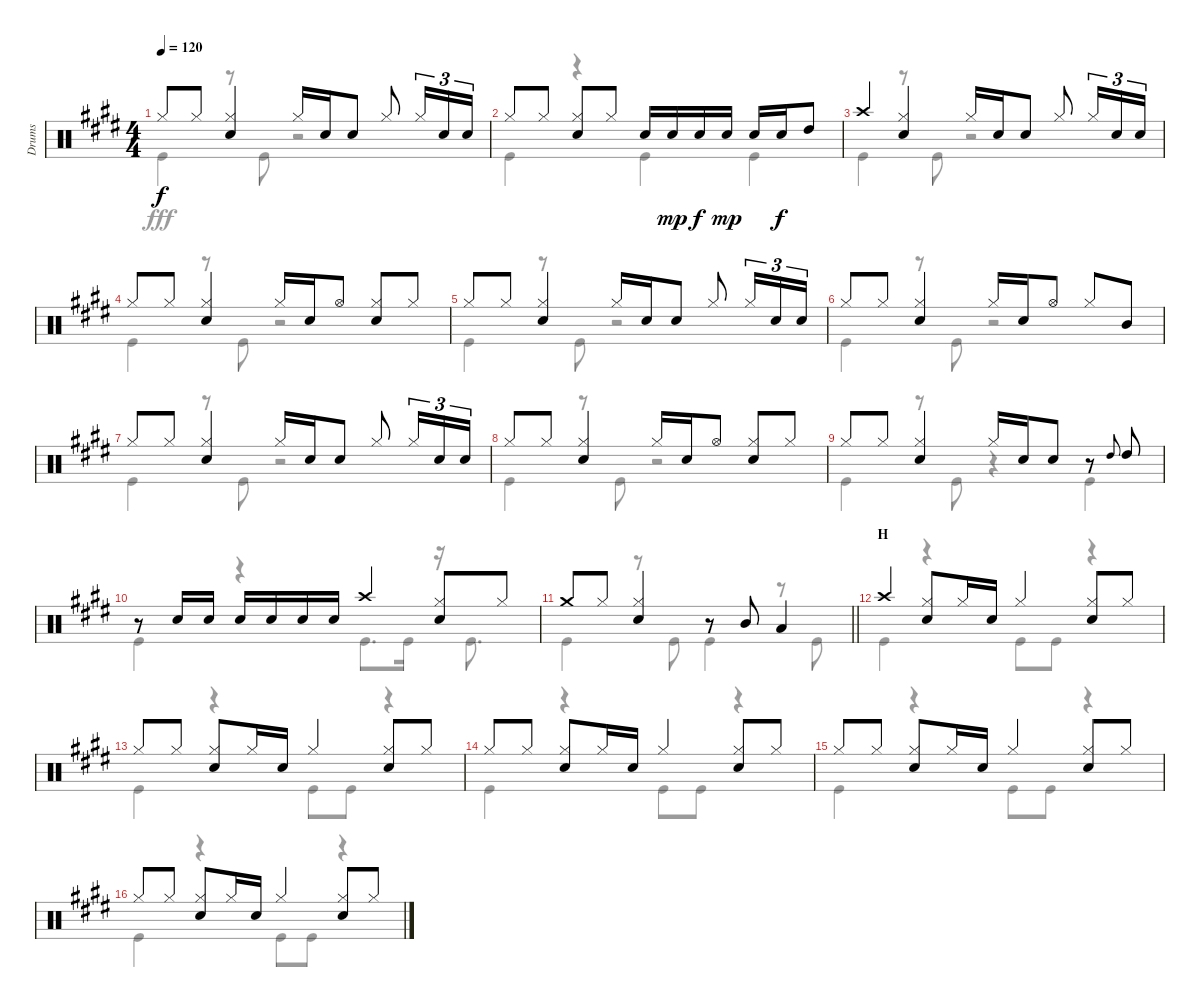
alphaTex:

\track ("Drums" "Drums") {instrument percussion}
\staff {score}
\articulation defaults
\voice
\ts (4 4)
\tempo 120
\clef neutral
\ks e "Hi-Hat (closed)".8{dy f} "Hi-Hat (closed)".8
("Hi-Hat (closed)" "Snare (hit) 2").4 "Hi-Hat (closed)".16 "Snare (hit) 2".16 "Snare (hit) 2".8 "Hi-Hat (closed)".8 "Hi-Hat (closed)".16{tu (3 2)} "Snare (hit) 2".16{tu (3 2)} "Snare (hit) 2".16{tu (3 2)} |
"Hi-Hat (closed)".8 "Hi-Hat (closed)".8 ("Hi-Hat (closed)" "Snare (hit) 2").8 "Hi-Hat (closed)".8 "Snare (hit) 2".16 "Snare (hit) 2".16{dy mp} "Snare (hit) 2".16{dy f} "Snare (hit) 2".16{dy mp} "Snare (hit) 2".16 "Snare (hit) 2".16{dy f} "High Tom (hit)".8 |
"Crash high (hit)".4 ("Hi-Hat (closed)" "Snare (hit) 2").4 "Hi-Hat (closed)".16 "Snare (hit) 2".16 "Snare (hit) 2".8 "Hi-Hat (closed)".8 "Hi-Hat (closed)".16{tu (3 2)} "Snare (hit) 2".16{tu (3 2)} "Snare (hit) 2".16{tu (3 2)} |
"Hi-Hat (closed)".8 "Hi-Hat (closed)".8 ("Hi-Hat (closed)" "Snare (hit) 2").4 "Hi-Hat (closed)".16 "Snare (hit) 2".16 "Hi-Hat (open)".8 ("Hi-Hat (closed)" "Snare (hit) 2").8 "Hi-Hat (closed)".8 |
"Hi-Hat (closed)".8 "Hi-Hat (closed)".8 ("Hi-Hat (closed)" "Snare (hit) 2").4 "Hi-Hat (closed)".16 "Snare (hit) 2".16 "Snare (hit) 2".8 "Hi-Hat (closed)".8 "Hi-Hat (closed)".16{tu (3 2)} "Snare (hit) 2".16{tu (3 2)} "Snare (hit) 2".16{tu (3 2)} |
"Hi-Hat (closed)".8 "Hi-Hat (closed)".8 ("Hi-Hat (closed)" "Snare (hit) 2").4 "Hi-Hat (closed)".16 "Snare (hit) 2".16 "Hi-Hat (open)".8 "Hi-Hat (closed)".8 "Mid Tom (hit)".8 |
"Hi-Hat (closed)".8 "Hi-Hat (closed)".8 ("Hi-Hat (closed)" "Snare (hit) 2").4 "Hi-Hat (closed)".16 "Snare (hit) 2".16 "Snare (hit) 2".8 "Hi-Hat (closed)".8 "Hi-Hat (closed)".16{tu (3 2)} "Snare (hit) 2".16{tu (3 2)} "Snare (hit) 2".16{tu (3 2)} |
"Hi-Hat (closed)".8 "Hi-Hat (closed)".8 ("Hi-Hat (closed)" "Snare (hit) 2").4 "Hi-Hat (closed)".16 "Snare (hit) 2".16 "Hi-Hat (open)".8 ("Hi-Hat (closed)" "Snare (hit) 2").8 "Hi-Hat (closed)".8 |
"Hi-Hat (closed)".8 "Hi-Hat (closed)".8 ("Hi-Hat (closed)" "Snare (hit) 2").4 "Hi-Hat (closed)".16 "Snare (hit) 2".16 "Snare (hit) 2".8 r.8 "High Tom (hit)".8{gr onbeat} "High Tom (hit)".8 |
r.8 "Snare (hit) 2".16 "Snare (hit) 2".16 "Snare (hit) 2".16 "Snare (hit) 2".16 "Snare (hit) 2".16 "Snare (hit) 2".16 "Crash high (hit)".4 ("Hi-Hat (closed)" "Snare (hit) 2").8 "Hi-Hat (closed)".8 |
\barLineRight lightlight "Crash medium (hit)".8 "Hi-Hat (closed)".8
("Hi-Hat (closed)" "Snare (hit) 2").4 r.8 "Mid Tom (hit)".8 "Low Tom (hit)".4 |
\section ("" "H")
"Crash high (hit)".4 ("Hi-Hat (closed)" "Snare (hit) 2").8 "Hi-Hat (closed)".16 "Snare (hit) 2".16 "Hi-Hat (closed)".4 ("Hi-Hat (closed)" "Snare (hit) 2").8 "Hi-Hat (closed)".8 |
"Hi-Hat (closed)".8 "Hi-Hat (closed)".8 ("Hi-Hat (closed)" "Snare (hit) 2").8 "Hi-Hat (closed)".16 "Snare (hit) 2".16 "Hi-Hat (closed)".4 ("Hi-Hat (closed)" "Snare (hit) 2").8 "Hi-Hat (closed)".8 |
"Hi-Hat (closed)".8 "Hi-Hat (closed)".8 ("Hi-Hat (closed)" "Snare (hit) 2").8 "Hi-Hat (closed)".16 "Snare (hit) 2".16 "Hi-Hat (closed)".4 ("Hi-Hat (closed)" "Snare (hit) 2").8 "Hi-Hat (closed)".8 |
"Hi-Hat (closed)".8 "Hi-Hat (closed)".8 ("Hi-Hat (closed)" "Snare (hit) 2").8 "Hi-Hat (closed)".16 "Snare (hit) 2".16 "Hi-Hat (closed)".4 ("Hi-Hat (closed)" "Snare (hit) 2").8 "Hi-Hat (closed)".8 |
"Hi-Hat (closed)".8 "Hi-Hat (closed)".8 ("Hi-Hat (closed)" "Snare (hit) 2").8 "Hi-Hat (closed)".16 "Snare (hit) 2".16 "Hi-Hat (closed)".4 ("Hi-Hat (closed)" "Snare (hit) 2").8 "Hi-Hat (closed)".8
\voice
\clef neutral
\ottava regular
\simile none
\ks e "Kick (hit)".4{dy fff}
r.8 "Kick (hit)".8 r.2 |
"Kick (hit)".4 r.4 "Kick (hit)".4 "Kick (hit)".4 |
"Kick (hit)".4 r.8 "Kick (hit)".8 r.2 |
"Kick (hit)".4 r.8 "Kick (hit)".8 r.2 |
"Kick (hit)".4 r.8 "Kick (hit)".8 r.2 |
"Kick (hit)".4 r.8 "Kick (hit)".8 r.2 |
"Kick (hit)".4 r.8 "Kick (hit)".8 r.2 |
"Kick (hit)".4 r.8 "Kick (hit)".8 r.2 |
"Kick (hit)".4 r.8 "Kick (hit)".8 r.4 "Kick (hit)".4 |
"Kick (hit)".4 r.4 "Kick (hit)".8{d} "Kick (hit)".16 r.16 "Kick (hit)".8{d} |
\barLineRight lightlight "Kick (hit)".4
r.8 "Kick (hit)".8 "Kick (hit)".4 r.8 "Kick (hit)".8 |
"Kick (hit)".4 r.4 "Kick (hit)".8 "Kick (hit)".8 r.4 |
"Kick (hit)".4 r.4 "Kick (hit)".8 "Kick (hit)".8 r.4 |
"Kick (hit)".4 r.4 "Kick (hit)".8 "Kick (hit)".8 r.4 |
"Kick (hit)".4 r.4 "Kick (hit)".8 "Kick (hit)".8 r.4 |
"Kick (hit)".4 r.4 "Kick (hit)".8 "Kick (hit)".8 r.4
